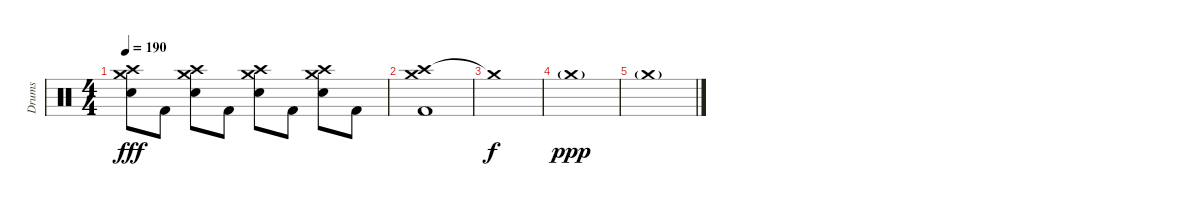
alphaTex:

\track ("Drums" "Drums") {instrument percussion}
\staff {score}
\articulation defaults
\ts (4 4)
\tempo 190
\clef neutral
\ks c
("Crash high (hit)" "Crash medium (hit)" "Snare (hit) 2").8{dy fff} "Kick (hit) 2".8 ("Crash high (hit)" "Crash medium (hit)" "Snare (hit) 2").8 "Kick (hit) 2".8 ("Crash high (hit)" "Crash medium (hit)" "Snare (hit) 2").8 "Kick (hit) 2".8 ("Crash high (hit)" "Crash medium (hit)" "Snare (hit) 2").8 "Kick (hit) 2".8 |
("Crash high (hit)" "Crash medium (hit)" "Kick (hit) 2").1 |
"Crash medium (hit)"{t}.1{dy f} |
"Crash medium (hit)"{g}.1{dy ppp} |
"Crash medium (hit)"{g}.1
